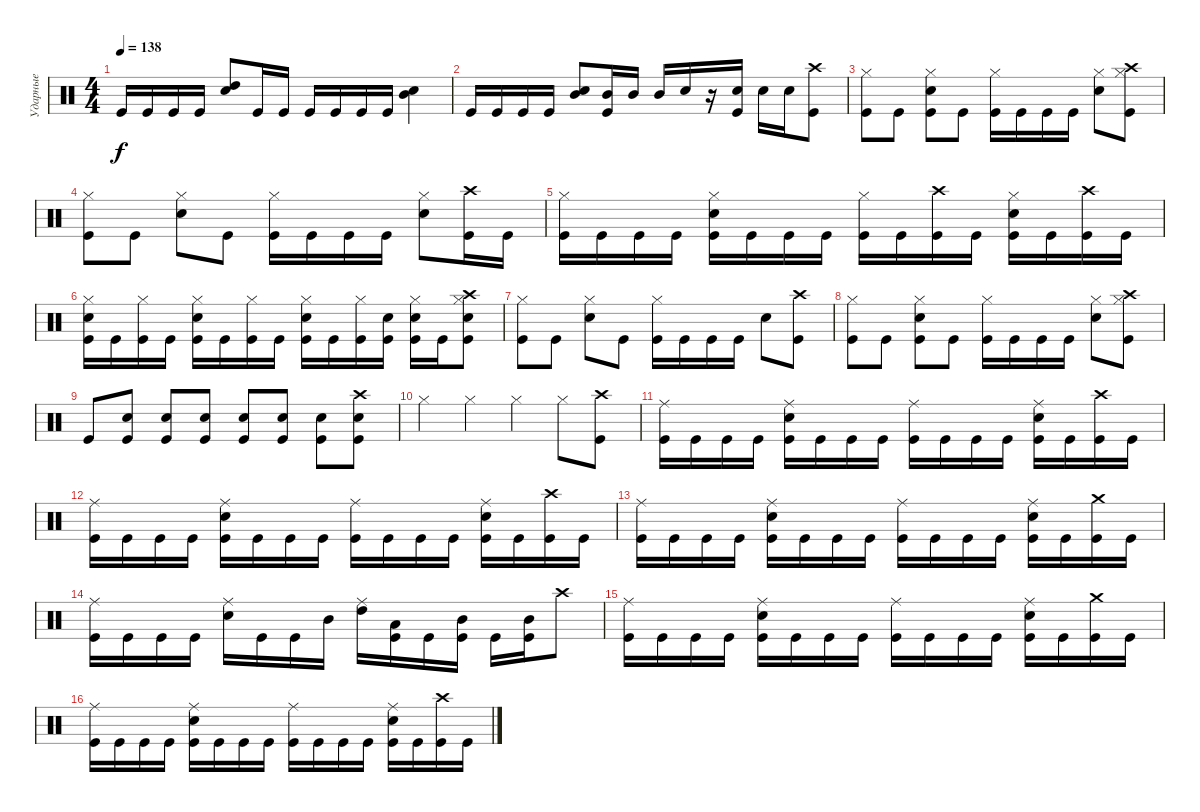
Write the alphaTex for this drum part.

\track ("Ударные" "Ударные") {instrument percussion}
\staff {score}
\articulation defaults
\ts (4 4)
\tempo 138
\clef neutral
\ks c "Kick (hit)".16{dy f} "Kick (hit)".16 "Kick (hit)".16 "Kick (hit)".16
("High Tom (hit)" "Electric Snare (hit)").8 "Kick (hit)".16 "Kick (hit)".16 "Kick (hit)".16 "Kick (hit)".16 "Kick (hit)".16 "Kick (hit)".16 ("Mid Tom (hit)" "Electric Snare (hit)").4 |
"Kick (hit)".16 "Kick (hit)".16 "Kick (hit)".16 "Kick (hit)".16 ("Electric Snare (hit)" "Mid Tom (hit)").8 ("Mid Tom (hit)" "Kick (hit)").16 "Mid Tom (hit)".16 "Mid Tom (hit)".16 "Electric Snare (hit)".16 r.16 ("Electric Snare (hit)" "Kick (hit)").16 "Electric Snare (hit)".16 "Electric Snare (hit)".16 ("Crash high (hit)" "Kick (hit)").8 |
("Hi-Hat (closed)" "Kick (hit)").8 "Kick (hit)".8 ("Hi-Hat (closed)" "Electric Snare (hit)" "Kick (hit)").8 "Kick (hit)".8 ("Hi-Hat (closed)" "Kick (hit)").16 "Kick (hit)".16 "Kick (hit)".16 "Kick (hit)".16 ("Hi-Hat (closed)" "Electric Snare (hit)").8 ("Crash high (hit)" "Hi-Hat (closed)" "Kick (hit)").8 |
("Hi-Hat (closed)" "Kick (hit)").8 "Kick (hit)".8 ("Hi-Hat (closed)" "Electric Snare (hit)").8 "Kick (hit)".8 ("Hi-Hat (closed)" "Kick (hit)").16 "Kick (hit)".16 "Kick (hit)".16 "Kick (hit)".16 ("Hi-Hat (closed)" "Electric Snare (hit)").8 ("Crash high (hit)" "Kick (hit)").16 "Kick (hit)".16 |
("Hi-Hat (closed)" "Kick (hit)").16 "Kick (hit)".16 "Kick (hit)".16 "Kick (hit)".16 ("Hi-Hat (closed)" "Electric Snare (hit)" "Kick (hit)").16 "Kick (hit)".16 "Kick (hit)".16 "Kick (hit)".16 ("Hi-Hat (closed)" "Kick (hit)").16 "Kick (hit)".16 ("Crash high (hit)" "Kick (hit)").16 "Kick (hit)".16 ("Hi-Hat (closed)" "Electric Snare (hit)" "Kick (hit)").16 "Kick (hit)".16 ("Crash high (hit)" "Kick (hit)").16 "Kick (hit)".16 |
("Hi-Hat (closed)" "Electric Snare (hit)" "Kick (hit)").16 "Kick (hit)".16 ("Hi-Hat (closed)" "Kick (hit)").16 "Kick (hit)".16 ("Hi-Hat (closed)" "Electric Snare (hit)" "Kick (hit)").16 "Kick (hit)".16 ("Hi-Hat (closed)" "Kick (hit)").16 "Kick (hit)".16 ("Hi-Hat (closed)" "Electric Snare (hit)" "Kick (hit)").16 "Kick (hit)".16 ("Hi-Hat (closed)" "Kick (hit)").16 ("Electric Snare (hit)" "Kick (hit)").16 ("Hi-Hat (closed)" "Electric Snare (hit)" "Kick (hit)").16 "Kick (hit)".16 ("Crash high (hit)" "Hi-Hat (closed)" "Electric Snare (hit)" "Kick (hit)").8 |
("Hi-Hat (closed)" "Kick (hit)").8 "Kick (hit)".8 ("Hi-Hat (closed)" "Electric Snare (hit)").8 "Kick (hit)".8 ("Hi-Hat (closed)" "Kick (hit)").16 "Kick (hit)".16 "Kick (hit)".16 "Kick (hit)".16 "Electric Snare (hit)".8 ("Crash high (hit)" "Kick (hit)").8 |
("Hi-Hat (closed)" "Kick (hit)").8 "Kick (hit)".8 ("Hi-Hat (closed)" "Electric Snare (hit)" "Kick (hit)").8 "Kick (hit)".8 ("Hi-Hat (closed)" "Kick (hit)").16 "Kick (hit)".16 "Kick (hit)".16 "Kick (hit)".16 ("Hi-Hat (closed)" "Electric Snare (hit)").8 ("Crash high (hit)" "Hi-Hat (closed)" "Kick (hit)").8 |
"Kick (hit)".8 ("Electric Snare (hit)" "Kick (hit)").8 ("Electric Snare (hit)" "Kick (hit)").8 ("Electric Snare (hit)" "Kick (hit)").8 ("Electric Snare (hit)" "Kick (hit)").8 ("Electric Snare (hit)" "Kick (hit)").8 ("Electric Snare (hit)" "Kick (hit)").8 ("Crash high (hit)" "Electric Snare (hit)" "Kick (hit)").8 |
"Hi-Hat (closed)".4 "Hi-Hat (closed)".4 "Hi-Hat (closed)".4 "Hi-Hat (closed)".8 ("Crash high (hit)" "Kick (hit)").8 |
("Ride (middle)" "Kick (hit)").16 "Kick (hit)".16 "Kick (hit)".16 "Kick (hit)".16 ("Ride (middle)" "Electric Snare (hit)" "Kick (hit)").16 "Kick (hit)".16 "Kick (hit)".16 "Kick (hit)".16 ("Ride (middle)" "Kick (hit)").16 "Kick (hit)".16 "Kick (hit)".16 "Kick (hit)".16 ("Ride (middle)" "Electric Snare (hit)" "Kick (hit)").16 "Kick (hit)".16 ("Crash high (hit)" "Kick (hit)").16 "Kick (hit)".16 |
("Ride (middle)" "Kick (hit)").16 "Kick (hit)".16 "Kick (hit)".16 "Kick (hit)".16 ("Ride (middle)" "Electric Snare (hit)" "Kick (hit)").16 "Kick (hit)".16 "Kick (hit)".16 "Kick (hit)".16 ("Ride (middle)" "Kick (hit)").16 "Kick (hit)".16 "Kick (hit)".16 "Kick (hit)".16 ("Ride (middle)" "Electric Snare (hit)" "Kick (hit)").16 "Kick (hit)".16 ("Crash high (hit)" "Kick (hit)").16 "Kick (hit)".16 |
("Ride (middle)" "Kick (hit)").16 "Kick (hit)".16 "Kick (hit)".16 "Kick (hit)".16 ("Ride (middle)" "Electric Snare (hit)" "Kick (hit)").16 "Kick (hit)".16 "Kick (hit)".16 "Kick (hit)".16 ("Ride (middle)" "Kick (hit)").16 "Kick (hit)".16 "Kick (hit)".16 "Kick (hit)".16 ("Ride (middle)" "Electric Snare (hit)" "Kick (hit)").16 "Kick (hit)".16 ("Crash medium (hit)" "Kick (hit)").16 "Kick (hit)".16 |
("Ride (middle)" "Kick (hit)").16 "Kick (hit)".16 "Kick (hit)".16 "Kick (hit)".16 ("Ride (middle)" "Electric Snare (hit)").16 "Kick (hit)".16 "Kick (hit)".16 "Mid Tom (hit)".16 ("Ride (middle)" "High Tom (hit)").16 ("Low Tom (hit)" "Kick (hit)").16 "Kick (hit)".16 ("Mid Tom (hit)" "Kick (hit)").16 "Kick (hit)".16 ("Mid Tom (hit)" "Kick (hit)").16 "Crash high (hit)".8 |
("Ride (middle)" "Kick (hit)").16 "Kick (hit)".16 "Kick (hit)".16 "Kick (hit)".16 ("Ride (middle)" "Electric Snare (hit)" "Kick (hit)").16 "Kick (hit)".16 "Kick (hit)".16 "Kick (hit)".16 ("Ride (middle)" "Kick (hit)").16 "Kick (hit)".16 "Kick (hit)".16 "Kick (hit)".16 ("Ride (middle)" "Electric Snare (hit)" "Kick (hit)").16 "Kick (hit)".16 ("Crash medium (hit)" "Kick (hit)").16 "Kick (hit)".16 |
("Ride (middle)" "Kick (hit)").16 "Kick (hit)".16 "Kick (hit)".16 "Kick (hit)".16 ("Ride (middle)" "Electric Snare (hit)" "Kick (hit)").16 "Kick (hit)".16 "Kick (hit)".16 "Kick (hit)".16 ("Ride (middle)" "Kick (hit)").16 "Kick (hit)".16 "Kick (hit)".16 "Kick (hit)".16 ("Ride (middle)" "Electric Snare (hit)" "Kick (hit)").16 "Kick (hit)".16 ("Crash high (hit)" "Kick (hit)").16 "Kick (hit)".16
